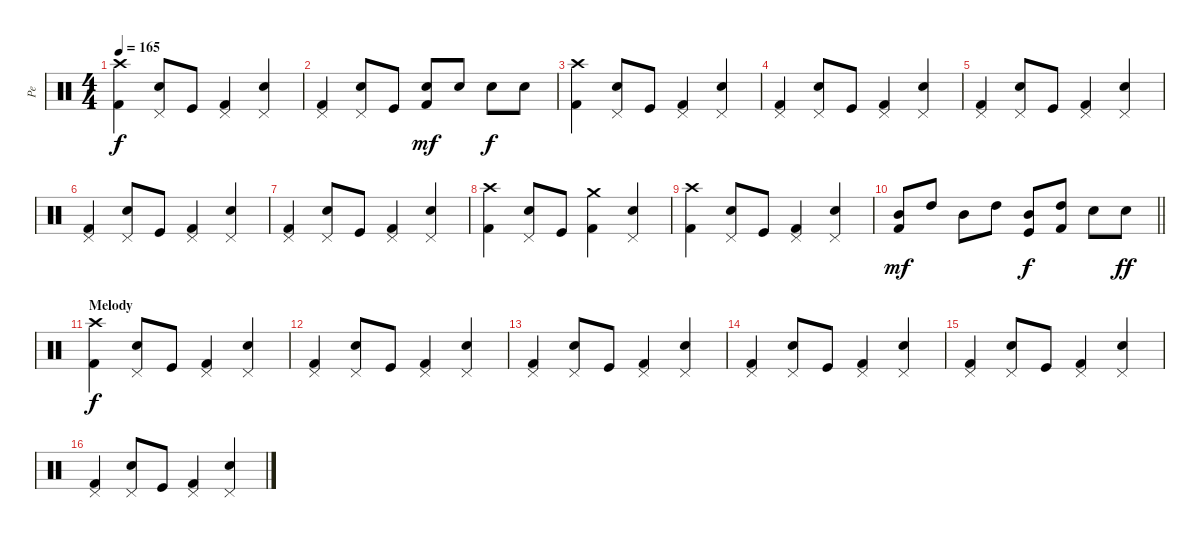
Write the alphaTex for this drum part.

\track ("Pe" "Pe") {instrument percussion}
\staff {score}
\articulation defaults
\ts (4 4)
\tempo 165
\clef neutral
\ks c
("Kick (hit) 2" "Crash high (hit)").4{dy f} ("Electric Snare (hit)" "Pedal Hi-Hat (hit)").8 "Kick (hit)".8 ("Kick (hit) 2" "Pedal Hi-Hat (hit)").4 ("Electric Snare (hit)" "Pedal Hi-Hat (hit)").4 |
("Kick (hit) 2" "Pedal Hi-Hat (hit)").4 ("Electric Snare (hit)" "Pedal Hi-Hat (hit)").8 "Kick (hit)".8 ("Kick (hit) 2" "Electric Snare (hit)").8{dy mf} "Electric Snare (hit)".8 "Electric Snare (hit)".8{dy f} "Electric Snare (hit)".8 |
("Kick (hit) 2" "Crash high (hit)").4 ("Electric Snare (hit)" "Pedal Hi-Hat (hit)").8 "Kick (hit)".8 ("Kick (hit) 2" "Pedal Hi-Hat (hit)").4 ("Electric Snare (hit)" "Pedal Hi-Hat (hit)").4 |
("Kick (hit) 2" "Pedal Hi-Hat (hit)").4 ("Electric Snare (hit)" "Pedal Hi-Hat (hit)").8 "Kick (hit)".8 ("Kick (hit) 2" "Pedal Hi-Hat (hit)").4 ("Electric Snare (hit)" "Pedal Hi-Hat (hit)").4 |
("Kick (hit) 2" "Pedal Hi-Hat (hit)").4 ("Electric Snare (hit)" "Pedal Hi-Hat (hit)").8 "Kick (hit)".8 ("Kick (hit) 2" "Pedal Hi-Hat (hit)").4 ("Electric Snare (hit)" "Pedal Hi-Hat (hit)").4 |
("Kick (hit) 2" "Pedal Hi-Hat (hit)").4 ("Electric Snare (hit)" "Pedal Hi-Hat (hit)").8 "Kick (hit)".8 ("Kick (hit) 2" "Pedal Hi-Hat (hit)").4 ("Electric Snare (hit)" "Pedal Hi-Hat (hit)").4 |
("Kick (hit) 2" "Pedal Hi-Hat (hit)").4 ("Electric Snare (hit)" "Pedal Hi-Hat (hit)").8 "Kick (hit)".8 ("Kick (hit) 2" "Pedal Hi-Hat (hit)").4 ("Electric Snare (hit)" "Pedal Hi-Hat (hit)").4 |
("Kick (hit) 2" "Crash high (hit)").4 ("Electric Snare (hit)" "Pedal Hi-Hat (hit)").8 "Kick (hit)".8 ("Kick (hit) 2" "Crash medium (hit)").4 ("Electric Snare (hit)" "Pedal Hi-Hat (hit)").4 |
("Kick (hit) 2" "Crash high (hit)").4 ("Electric Snare (hit)" "Pedal Hi-Hat (hit)").8 "Kick (hit)".8 ("Kick (hit) 2" "Pedal Hi-Hat (hit)").4 ("Electric Snare (hit)" "Pedal Hi-Hat (hit)").4 |
\barLineRight lightlight
("Kick (hit) 2" "Mid Tom (hit)").8{dy mf} "High Tom (hit)".8 "Mid Tom (hit)".8 "High Tom (hit)".8 ("Kick (hit)" "Mid Tom (hit)").8{dy f} ("Kick (hit) 2" "High Tom (hit)").8 "Electric Snare (hit)".8 "Electric Snare (hit)".8{dy ff} |
\section ("" "Melody")
("Kick (hit) 2" "Crash high (hit)").4{dy f} ("Electric Snare (hit)" "Pedal Hi-Hat (hit)").8 "Kick (hit)".8 ("Kick (hit) 2" "Pedal Hi-Hat (hit)").4 ("Electric Snare (hit)" "Pedal Hi-Hat (hit)").4 |
("Kick (hit) 2" "Pedal Hi-Hat (hit)").4 ("Electric Snare (hit)" "Pedal Hi-Hat (hit)").8 "Kick (hit)".8 ("Kick (hit) 2" "Pedal Hi-Hat (hit)").4 ("Electric Snare (hit)" "Pedal Hi-Hat (hit)").4 |
("Kick (hit) 2" "Pedal Hi-Hat (hit)").4 ("Electric Snare (hit)" "Pedal Hi-Hat (hit)").8 "Kick (hit)".8 ("Kick (hit) 2" "Pedal Hi-Hat (hit)").4 ("Electric Snare (hit)" "Pedal Hi-Hat (hit)").4 |
("Kick (hit) 2" "Pedal Hi-Hat (hit)").4 ("Electric Snare (hit)" "Pedal Hi-Hat (hit)").8 "Kick (hit)".8 ("Kick (hit) 2" "Pedal Hi-Hat (hit)").4 ("Electric Snare (hit)" "Pedal Hi-Hat (hit)").4 |
("Kick (hit) 2" "Pedal Hi-Hat (hit)").4 ("Electric Snare (hit)" "Pedal Hi-Hat (hit)").8 "Kick (hit)".8 ("Kick (hit) 2" "Pedal Hi-Hat (hit)").4 ("Electric Snare (hit)" "Pedal Hi-Hat (hit)").4 |
("Kick (hit) 2" "Pedal Hi-Hat (hit)").4 ("Electric Snare (hit)" "Pedal Hi-Hat (hit)").8 "Kick (hit)".8 ("Kick (hit) 2" "Pedal Hi-Hat (hit)").4 ("Electric Snare (hit)" "Pedal Hi-Hat (hit)").4
